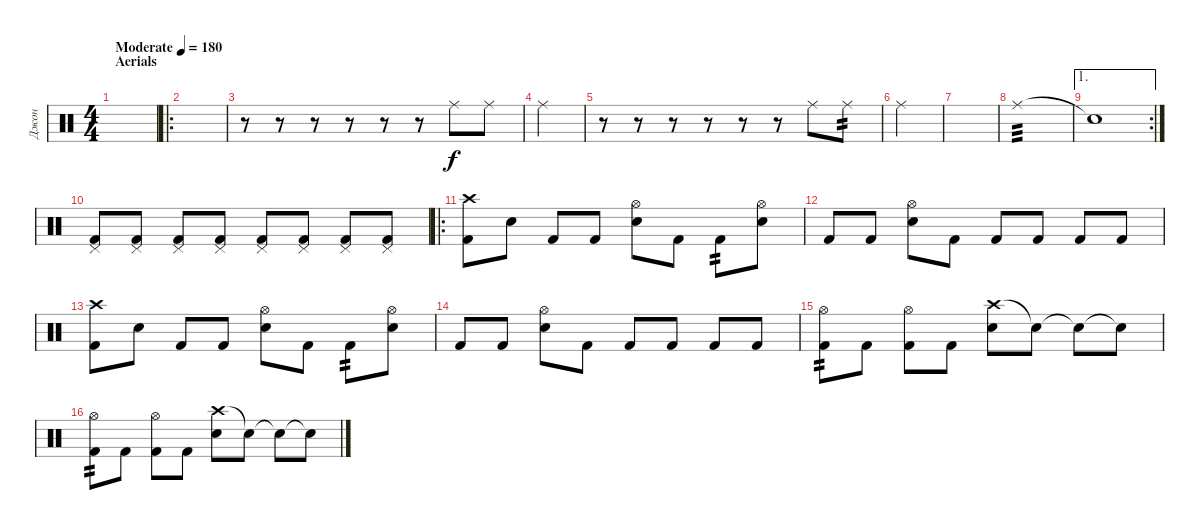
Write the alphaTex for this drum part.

\track ("Джон" "Джон") {instrument percussion}
\staff {score}
\articulation defaults
\ts (4 4)
\section ("" "Aerials")
\tempo (180 "Moderate")
\clef neutral
\ks c
|
\ro
|
r.8 r.8 r.8 r.8 r.8 r.8 "Ride (middle)".8 "Ride (middle)".8 |
"Ride (middle)".4 |
r.8 r.8 r.8 r.8 r.8 r.8 "Ride (middle)".8 "Ride (middle)".8{tp 2} |
"Ride (middle)".4 |
|
"Ride (middle)".1{tp 3 volume 2} |
\ae 1
\rc 2 "Snare (hit)"{t}.1{volume 13}
|
("Pedal Hi-Hat (hit)" "Kick (hit) 2").8{volume 13} ("Pedal Hi-Hat (hit)" "Kick (hit) 2").8 ("Pedal Hi-Hat (hit)" "Kick (hit) 2").8 ("Pedal Hi-Hat (hit)" "Kick (hit) 2").8 ("Pedal Hi-Hat (hit)" "Kick (hit) 2").8 ("Pedal Hi-Hat (hit)" "Kick (hit) 2").8 ("Pedal Hi-Hat (hit)" "Kick (hit) 2").8 ("Pedal Hi-Hat (hit)" "Kick (hit) 2").8 |
\ro
("Crash high (hit)" "Kick (hit) 2").8 "Snare (hit)".8 "Kick (hit) 2".8 "Kick (hit) 2".8 ("Hi-Hat (open)" "Snare (hit) 2").8 "Kick (hit) 2".8 "Kick (hit) 2".8{tp 2} ("Hi-Hat (open)" "Snare (hit) 2").8 |
"Kick (hit) 2".8 "Kick (hit) 2".8 ("Hi-Hat (open)" "Snare (hit) 2").8 "Kick (hit) 2".8 "Kick (hit) 2".8 "Kick (hit) 2".8 "Kick (hit) 2".8 "Kick (hit) 2".8 |
("Crash high (hit)" "Kick (hit) 2").8 "Snare (hit)".8 "Kick (hit) 2".8 "Kick (hit) 2".8 ("Hi-Hat (open)" "Snare (hit) 2").8 "Kick (hit) 2".8 "Kick (hit) 2".8{tp 2} ("Hi-Hat (open)" "Snare (hit) 2").8 |
"Kick (hit) 2".8 "Kick (hit) 2".8 ("Hi-Hat (open)" "Snare (hit) 2").8 "Kick (hit) 2".8 "Kick (hit) 2".8 "Kick (hit) 2".8 "Kick (hit) 2".8 "Kick (hit) 2".8 |
("Hi-Hat (open)" "Kick (hit) 2").8{tp 2} "Kick (hit) 2".8 ("Hi-Hat (open)" "Kick (hit) 2").8 "Kick (hit) 2".8 ("Crash high (hit)" "Snare (hit) 2").8 "Snare (hit)"{t}.8 "Snare (hit)"{t}.8 "Snare (hit)"{t}.8 |
("Hi-Hat (open)" "Kick (hit) 2").8{tp 2} "Kick (hit) 2".8 ("Hi-Hat (open)" "Kick (hit) 2").8 "Kick (hit) 2".8 ("Crash high (hit)" "Snare (hit) 2").8 "Snare (hit)"{t}.8 "Snare (hit)"{t}.8 "Snare (hit)"{t}.8
